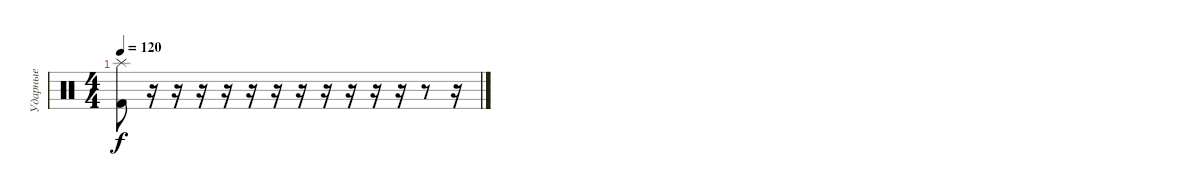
\track ("Ударные" "Ударные") {instrument percussion}
\staff {score}
\articulation defaults
\ts (4 4)
\tempo 120
\clef neutral
\ks c
("Splash (hit)" "Kick (hit) 2").8{dy f} r.16 r.16 r.16 r.16 r.16 r.16 r.16 r.16 r.16 r.16 r.16 r.8 r.16
